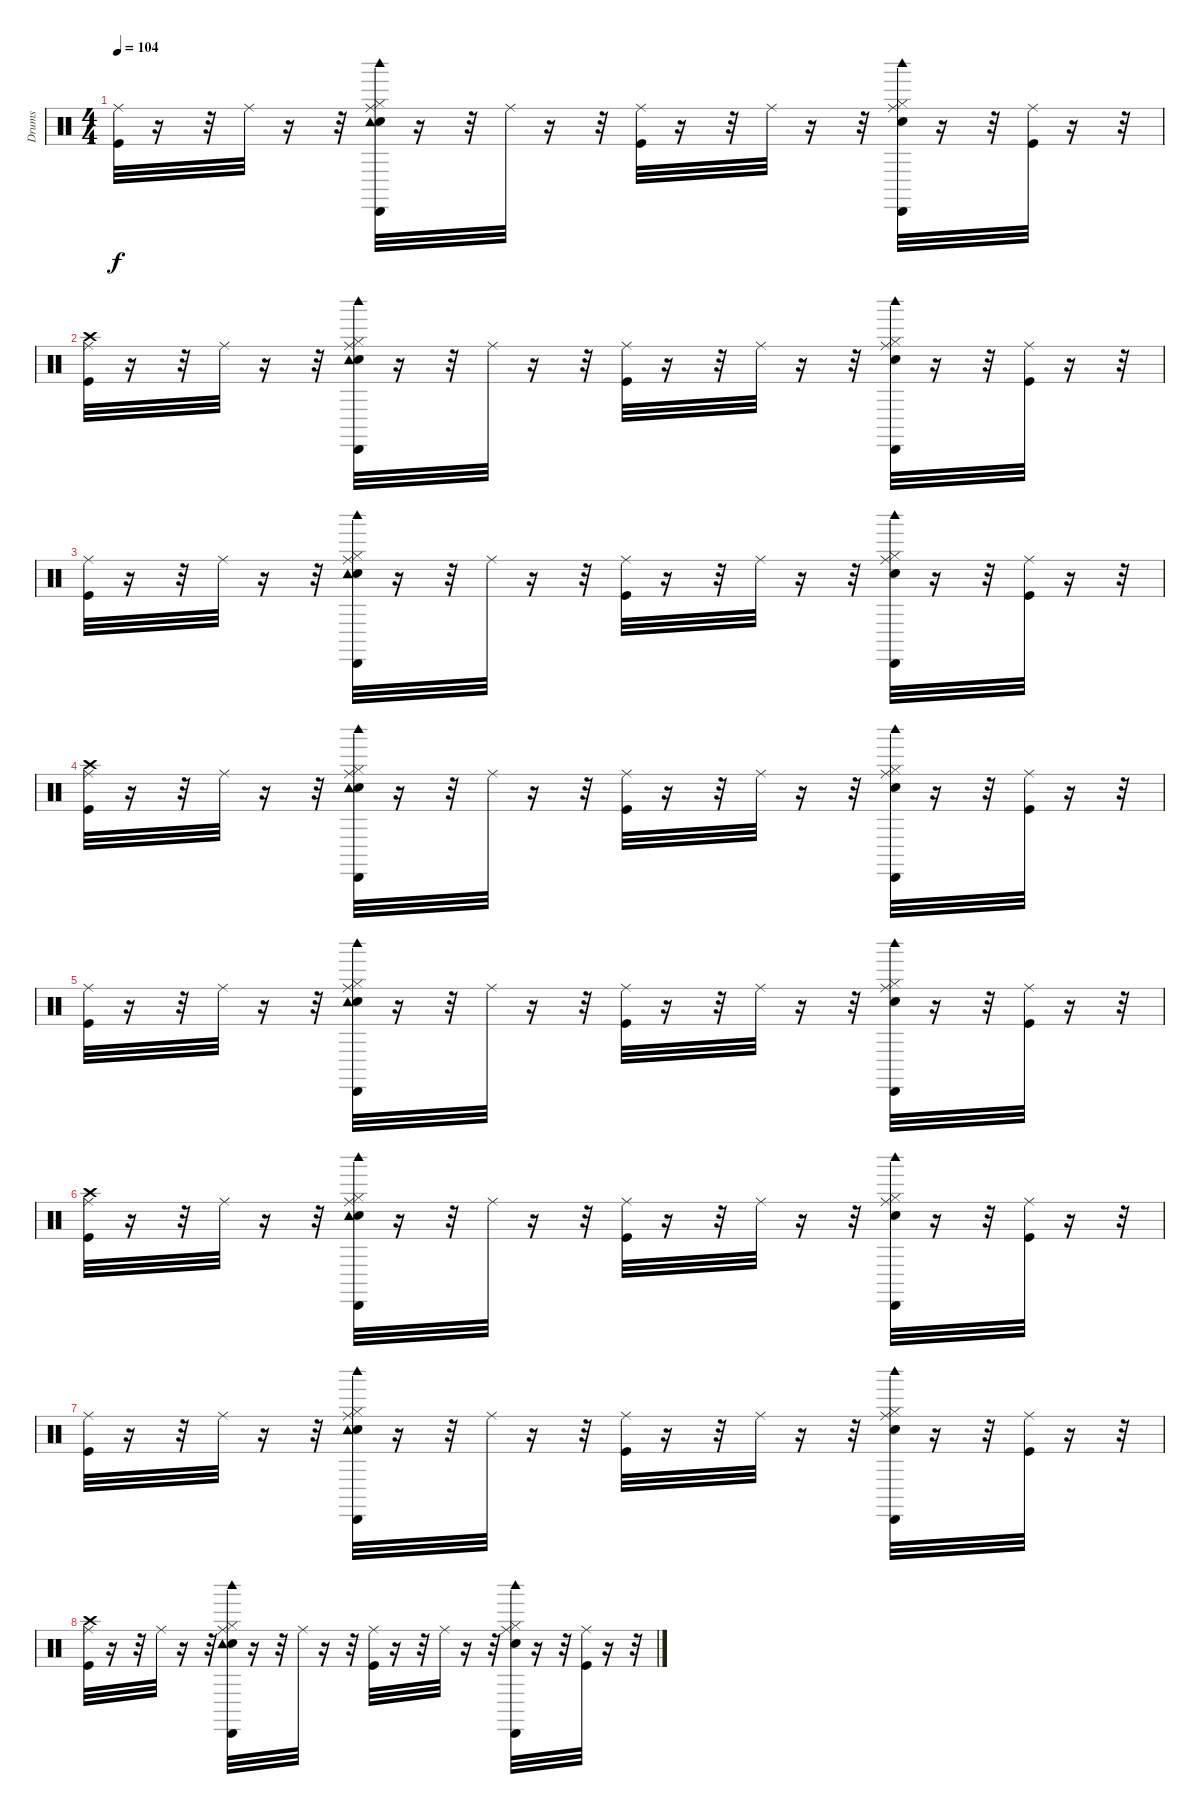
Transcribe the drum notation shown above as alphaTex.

\track ("Drums" "Drums") {instrument percussion}
\staff {score}
\articulation defaults
\ts (4 4)
\tempo 104
\clef neutral
\ks c
("Kick (hit)" "Ride (middle)").32{dy f} r.16 r.32 "Ride (middle)".32 r.16 r.32 ("Snare (hit) 2" "Hi-Hat (closed)" "Ride (middle)" "Tambourine (hit)" "Cabasa (hit)" "Woodblock high (hit)").32 r.16 r.32 "Ride (middle)".32 r.16 r.32 ("Kick (hit)" "Ride (middle)").32 r.16 r.32 "Ride (middle)".32 r.16 r.32 ("Snare (hit) 2" "Hi-Hat (closed)" "Ride (middle)" "Cabasa (hit)" "Woodblock high (hit)").32 r.16 r.32 ("Kick (hit)" "Ride (middle)").32 r.16 r.32 |
("Kick (hit)" "Crash high (hit)" "Ride (middle)").32 r.16 r.32 "Ride (middle)".32 r.16 r.32 ("Snare (hit) 2" "Hi-Hat (closed)" "Ride (middle)" "Tambourine (hit)" "Cabasa (hit)" "Woodblock high (hit)").32 r.16 r.32 "Ride (middle)".32 r.16 r.32 ("Kick (hit)" "Ride (middle)").32 r.16 r.32 "Ride (middle)".32 r.16 r.32 ("Snare (hit) 2" "Hi-Hat (closed)" "Ride (middle)" "Cabasa (hit)" "Woodblock high (hit)").32 r.16 r.32 ("Kick (hit)" "Ride (middle)").32 r.16 r.32 |
("Kick (hit)" "Ride (middle)").32 r.16 r.32 "Ride (middle)".32 r.16 r.32 ("Snare (hit) 2" "Hi-Hat (closed)" "Ride (middle)" "Tambourine (hit)" "Cabasa (hit)" "Woodblock high (hit)").32 r.16 r.32 "Ride (middle)".32 r.16 r.32 ("Kick (hit)" "Ride (middle)").32 r.16 r.32 "Ride (middle)".32 r.16 r.32 ("Snare (hit) 2" "Hi-Hat (closed)" "Ride (middle)" "Cabasa (hit)" "Woodblock high (hit)").32 r.16 r.32 ("Kick (hit)" "Ride (middle)").32 r.16 r.32 |
("Kick (hit)" "Crash high (hit)" "Ride (middle)").32 r.16 r.32 "Ride (middle)".32 r.16 r.32 ("Snare (hit) 2" "Hi-Hat (closed)" "Ride (middle)" "Tambourine (hit)" "Cabasa (hit)" "Woodblock high (hit)").32 r.16 r.32 "Ride (middle)".32 r.16 r.32 ("Kick (hit)" "Ride (middle)").32 r.16 r.32 "Ride (middle)".32 r.16 r.32 ("Snare (hit) 2" "Hi-Hat (closed)" "Ride (middle)" "Cabasa (hit)" "Woodblock high (hit)").32 r.16 r.32 ("Kick (hit)" "Ride (middle)").32 r.16 r.32 |
("Kick (hit)" "Ride (middle)").32 r.16 r.32 "Ride (middle)".32 r.16 r.32 ("Snare (hit) 2" "Hi-Hat (closed)" "Ride (middle)" "Tambourine (hit)" "Cabasa (hit)" "Woodblock high (hit)").32 r.16 r.32 "Ride (middle)".32 r.16 r.32 ("Kick (hit)" "Ride (middle)").32 r.16 r.32 "Ride (middle)".32 r.16 r.32 ("Snare (hit) 2" "Hi-Hat (closed)" "Ride (middle)" "Cabasa (hit)" "Woodblock high (hit)").32 r.16 r.32 ("Kick (hit)" "Ride (middle)").32 r.16 r.32 |
("Kick (hit)" "Crash high (hit)" "Ride (middle)").32 r.16 r.32 "Ride (middle)".32 r.16 r.32 ("Snare (hit) 2" "Hi-Hat (closed)" "Ride (middle)" "Tambourine (hit)" "Cabasa (hit)" "Woodblock high (hit)").32 r.16 r.32 "Ride (middle)".32 r.16 r.32 ("Kick (hit)" "Ride (middle)").32 r.16 r.32 "Ride (middle)".32 r.16 r.32 ("Snare (hit) 2" "Hi-Hat (closed)" "Ride (middle)" "Cabasa (hit)" "Woodblock high (hit)").32 r.16 r.32 ("Kick (hit)" "Ride (middle)").32 r.16 r.32 |
("Kick (hit)" "Ride (middle)").32 r.16 r.32 "Ride (middle)".32 r.16 r.32 ("Snare (hit) 2" "Hi-Hat (closed)" "Ride (middle)" "Tambourine (hit)" "Cabasa (hit)" "Woodblock high (hit)").32 r.16 r.32 "Ride (middle)".32 r.16 r.32 ("Kick (hit)" "Ride (middle)").32 r.16 r.32 "Ride (middle)".32 r.16 r.32 ("Snare (hit) 2" "Hi-Hat (closed)" "Ride (middle)" "Cabasa (hit)" "Woodblock high (hit)").32 r.16 r.32 ("Kick (hit)" "Ride (middle)").32 r.16 r.32 |
("Kick (hit)" "Crash high (hit)" "Ride (middle)").32{volume 10} r.16 r.32 "Ride (middle)".32 r.16 r.32 ("Snare (hit) 2" "Hi-Hat (closed)" "Ride (middle)" "Tambourine (hit)" "Cabasa (hit)" "Woodblock high (hit)").32 r.16 r.32 "Ride (middle)".32 r.16 r.32 ("Kick (hit)" "Ride (middle)").32 r.16 r.32 "Ride (middle)".32 r.16 r.32 ("Snare (hit) 2" "Hi-Hat (closed)" "Ride (middle)" "Cabasa (hit)" "Woodblock high (hit)").32 r.16 r.32 ("Kick (hit)" "Ride (middle)").32 r.16 r.32
